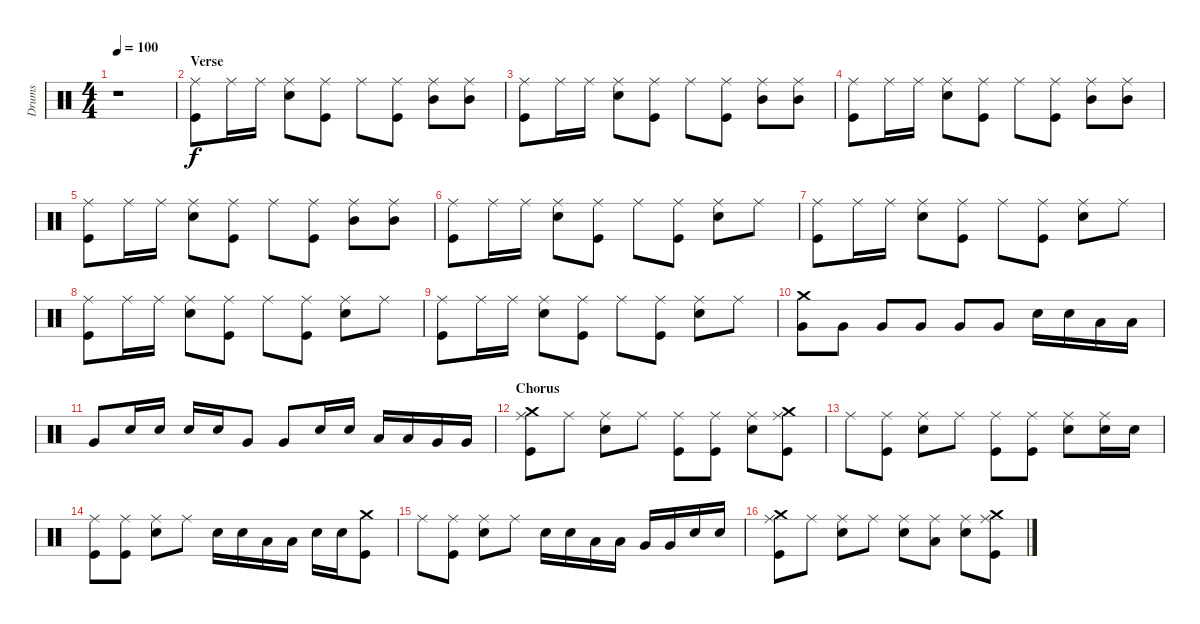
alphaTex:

\track ("Drums" "Drums") {instrument percussion}
\staff {score}
\articulation defaults
\ts (4 4)
\tempo 100
\clef neutral
\ks c
r.1{dy f} |
\section ("" "Verse")
("Ride (middle)" "Kick (hit)").8 "Ride (middle)".16 "Ride (middle)".16 ("Ride (middle)" "Snare (hit) 2").8 ("Ride (middle)" "Kick (hit)").8 "Ride (middle)".8 ("Ride (middle)" "Kick (hit)").8 ("Ride (middle)" "Mid Tom (hit)").8 ("Ride (middle)" "Mid Tom (hit)").8 |
("Ride (middle)" "Kick (hit)").8 "Ride (middle)".16 "Ride (middle)".16 ("Ride (middle)" "Snare (hit) 2").8 ("Ride (middle)" "Kick (hit)").8 "Ride (middle)".8 ("Ride (middle)" "Kick (hit)").8 ("Ride (middle)" "Mid Tom (hit)").8 ("Ride (middle)" "Mid Tom (hit)").8 |
("Ride (middle)" "Kick (hit)").8 "Ride (middle)".16 "Ride (middle)".16 ("Ride (middle)" "Snare (hit) 2").8 ("Ride (middle)" "Kick (hit)").8 "Ride (middle)".8 ("Ride (middle)" "Kick (hit)").8 ("Ride (middle)" "Mid Tom (hit)").8 ("Ride (middle)" "Mid Tom (hit)").8 |
("Ride (middle)" "Kick (hit)").8 "Ride (middle)".16 "Ride (middle)".16 ("Ride (middle)" "Snare (hit) 2").8 ("Ride (middle)" "Kick (hit)").8 "Ride (middle)".8 ("Ride (middle)" "Kick (hit)").8 ("Ride (middle)" "Mid Tom (hit)").8 ("Ride (middle)" "Mid Tom (hit)").8 |
("Ride (middle)" "Kick (hit)").8 "Ride (middle)".16 "Ride (middle)".16 ("Ride (middle)" "Snare (hit) 2").8 ("Ride (middle)" "Kick (hit)").8 "Ride (middle)".8 ("Ride (middle)" "Kick (hit)").8 ("Ride (middle)" "Snare (hit) 2").8 "Ride (middle)".8 |
("Ride (middle)" "Kick (hit)").8 "Ride (middle)".16 "Ride (middle)".16 ("Ride (middle)" "Snare (hit) 2").8 ("Ride (middle)" "Kick (hit)").8 "Ride (middle)".8 ("Ride (middle)" "Kick (hit)").8 ("Ride (middle)" "Snare (hit) 2").8 "Ride (middle)".8 |
("Ride (middle)" "Kick (hit)").8 "Ride (middle)".16 "Ride (middle)".16 ("Ride (middle)" "Snare (hit) 2").8 ("Ride (middle)" "Kick (hit)").8 "Ride (middle)".8 ("Ride (middle)" "Kick (hit)").8 ("Ride (middle)" "Snare (hit) 2").8 "Ride (middle)".8 |
("Ride (middle)" "Kick (hit)").8 "Ride (middle)".16 "Ride (middle)".16 ("Ride (middle)" "Snare (hit) 2").8 ("Ride (middle)" "Kick (hit)").8 "Ride (middle)".8 ("Ride (middle)" "Kick (hit)").8 ("Ride (middle)" "Snare (hit) 2").8 "Ride (middle)".8 |
("Crash medium (hit)" "Very Low Tom (hit)").8 "Very Low Tom (hit)".8 "Very Low Tom (hit)".8 "Very Low Tom (hit)".8 "Very Low Tom (hit)".8 "Very Low Tom (hit)".8 "Snare (hit) 2".16 "Snare (hit) 2".16 "Low Tom (hit)".16 "Low Tom (hit)".16 |
"Very Low Tom (hit)".8 "Snare (hit) 2".16 "Snare (hit) 2".16 "Snare (hit) 2".16 "Snare (hit) 2".16 "Very Low Tom (hit)".8 "Very Low Tom (hit)".8 "Snare (hit) 2".16 "Snare (hit) 2".16 "Low Tom (hit)".16 "Low Tom (hit)".16 "Very Low Tom (hit)".16 "Very Low Tom (hit)".16 |
\section ("" "Chorus")
("Ride (middle)" "Crash medium (hit)" "Kick (hit)").8 "Ride (middle)".8 ("Ride (middle)" "Snare (hit) 2").8 "Ride (middle)".8 ("Ride (middle)" "Kick (hit)").8 ("Ride (middle)" "Kick (hit)").8 ("Ride (middle)" "Snare (hit) 2").8 ("Ride (middle)" "Crash medium (hit)" "Kick (hit)").8 |
"Ride (middle)".8 ("Ride (middle)" "Kick (hit)").8 ("Ride (middle)" "Snare (hit) 2").8 "Ride (middle)".8 ("Ride (middle)" "Kick (hit)").8 ("Ride (middle)" "Kick (hit)").8 ("Ride (middle)" "Snare (hit) 2").8 ("Ride (middle)" "Snare (hit) 2").16 "Snare (hit) 2".16 |
("Ride (middle)" "Kick (hit)").8 ("Ride (middle)" "Kick (hit)").8 ("Ride (middle)" "Snare (hit) 2").8 "Ride (middle)".8 "Snare (hit) 2".16 "Snare (hit) 2".16 "Low Tom (hit)".16 "Low Tom (hit)".16 "Snare (hit) 2".16 "Snare (hit) 2".16 ("Crash medium (hit)" "Kick (hit)").8 |
"Ride (middle)".8 ("Ride (middle)" "Kick (hit)").8 ("Ride (middle)" "Snare (hit) 2").8 "Ride (middle)".8 "Snare (hit) 2".16 "Snare (hit) 2".16 "Low Tom (hit)".16 "Low Tom (hit)".16 "Very Low Tom (hit)".16 "Very Low Tom (hit)".16 "Snare (hit) 2".16 "Snare (hit) 2".16 |
("Ride (middle)" "Crash medium (hit)" "Kick (hit)").8 "Ride (middle)".8 ("Ride (middle)" "Snare (hit) 2").8 "Ride (middle)".8 ("Ride (middle)" "Snare (hit) 2").8 ("Ride (middle)" "Low Tom (hit)").8 ("Ride (middle)" "Snare (hit) 2").8 ("Ride (middle)" "Crash medium (hit)" "Kick (hit)").8
